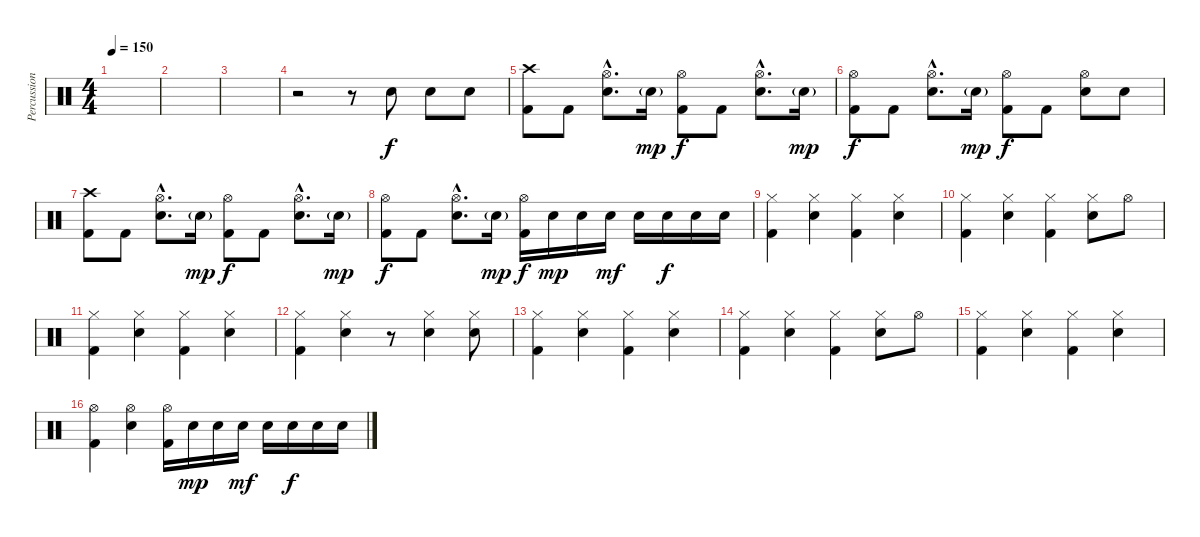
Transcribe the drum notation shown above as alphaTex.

\track ("Percussion" "Percussion") {instrument percussion}
\staff {score}
\articulation defaults
\ts (4 4)
\tempo 150
\clef neutral
\ks c
|
|
|
r.2 r.8 "Electric Snare (hit)".8 "Electric Snare (hit)".8 "Electric Snare (hit)".8 |
("Crash high (hit)" "Kick (hit) 2").8 "Kick (hit) 2".8 ("Hi-Hat (open)"{hac} "Electric Snare (hit)"{hac}).8{d} "Electric Snare (hit)"{g}.16{dy mp} ("Hi-Hat (open)" "Kick (hit) 2").8{dy f} "Kick (hit) 2".8 ("Hi-Hat (open)"{hac} "Electric Snare (hit)"{hac}).8{d} "Electric Snare (hit)"{g}.16{dy mp} |
("Hi-Hat (open)" "Kick (hit) 2").8{dy f} "Kick (hit) 2".8 ("Hi-Hat (open)"{hac} "Electric Snare (hit)"{hac}).8{d} "Electric Snare (hit)"{g}.16{dy mp} ("Hi-Hat (open)" "Kick (hit) 2").8{dy f} "Kick (hit) 2".8 ("Hi-Hat (open)" "Electric Snare (hit)").8 "Electric Snare (hit)".8 |
("Crash high (hit)" "Kick (hit) 2").8 "Kick (hit) 2".8 ("Hi-Hat (open)"{hac} "Electric Snare (hit)"{hac}).8{d} "Electric Snare (hit)"{g}.16{dy mp} ("Hi-Hat (open)" "Kick (hit) 2").8{dy f} "Kick (hit) 2".8 ("Hi-Hat (open)"{hac} "Electric Snare (hit)"{hac}).8{d} "Electric Snare (hit)"{g}.16{dy mp} |
("Hi-Hat (open)" "Kick (hit) 2").8{dy f} "Kick (hit) 2".8 ("Hi-Hat (open)"{hac} "Electric Snare (hit)"{hac}).8{d} "Electric Snare (hit)"{g}.16{dy mp} ("Hi-Hat (open)" "Kick (hit) 2").16{dy f} "Electric Snare (hit)".16{dy mp} "Electric Snare (hit)".16 "Electric Snare (hit)".16{dy mf} "Electric Snare (hit)".16 "Electric Snare (hit)".16{dy f} "Electric Snare (hit)".16 "Electric Snare (hit)".16 |
("Hi-Hat (closed)" "Kick (hit) 2").4 ("Hi-Hat (closed)" "Electric Snare (hit)").4 ("Hi-Hat (closed)" "Kick (hit) 2").4 ("Hi-Hat (closed)" "Electric Snare (hit)").4 |
("Hi-Hat (closed)" "Kick (hit) 2").4 ("Hi-Hat (closed)" "Electric Snare (hit)").4 ("Hi-Hat (closed)" "Kick (hit) 2").4 ("Hi-Hat (closed)" "Electric Snare (hit)").8 "Hi-Hat (open)".8 |
("Hi-Hat (closed)" "Kick (hit) 2").4 ("Hi-Hat (closed)" "Electric Snare (hit)").4 ("Hi-Hat (closed)" "Kick (hit) 2").4 ("Hi-Hat (closed)" "Electric Snare (hit)").4 |
("Hi-Hat (closed)" "Kick (hit) 2").4 ("Hi-Hat (closed)" "Electric Snare (hit)").4 r.8 ("Hi-Hat (closed)" "Electric Snare (hit)").4 ("Hi-Hat (closed)" "Electric Snare (hit)").8 |
("Hi-Hat (closed)" "Kick (hit) 2").4 ("Hi-Hat (closed)" "Electric Snare (hit)").4 ("Hi-Hat (closed)" "Kick (hit) 2").4 ("Hi-Hat (closed)" "Electric Snare (hit)").4 |
("Hi-Hat (closed)" "Kick (hit) 2").4 ("Hi-Hat (closed)" "Electric Snare (hit)").4 ("Hi-Hat (closed)" "Kick (hit) 2").4 ("Hi-Hat (closed)" "Electric Snare (hit)").8 "Hi-Hat (open)".8 |
("Hi-Hat (closed)" "Kick (hit) 2").4 ("Hi-Hat (closed)" "Electric Snare (hit)").4 ("Hi-Hat (closed)" "Kick (hit) 2").4 ("Hi-Hat (closed)" "Electric Snare (hit)").4 |
("Hi-Hat (open)" "Kick (hit) 2").4 ("Hi-Hat (open)" "Electric Snare (hit)").4 ("Hi-Hat (open)" "Kick (hit) 2").16 "Electric Snare (hit)".16{dy mp} "Electric Snare (hit)".16 "Electric Snare (hit)".16{dy mf} "Electric Snare (hit)".16 "Electric Snare (hit)".16{dy f} "Electric Snare (hit)".16 "Electric Snare (hit)".16
